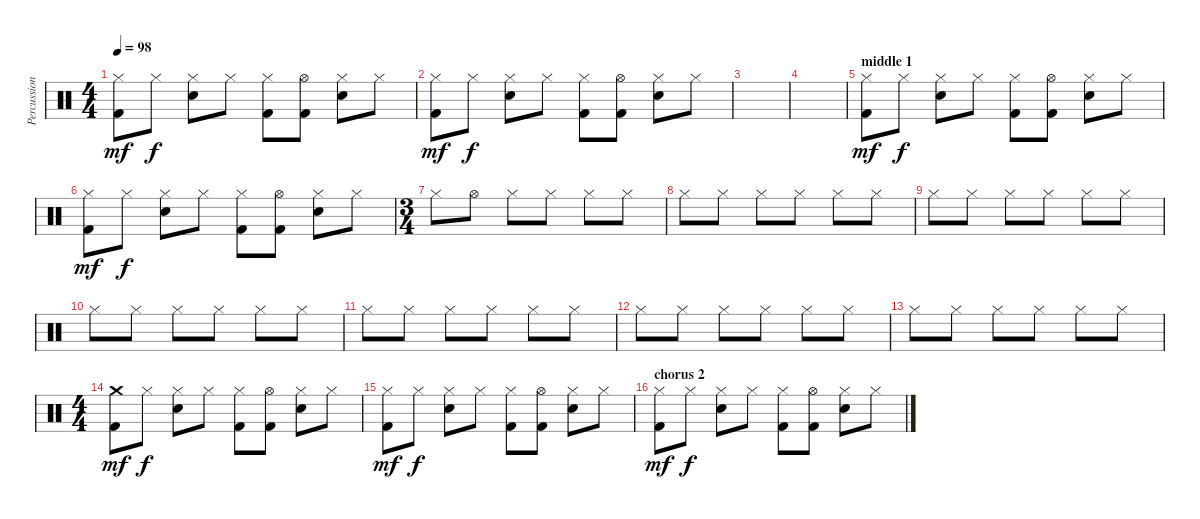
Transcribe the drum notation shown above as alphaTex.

\track ("Percussion" "Percussion") {instrument percussion}
\staff {score}
\articulation defaults
\ts (4 4)
\tempo 98
\clef neutral
\ks c
("Hi-Hat (closed)" "Kick (hit) 2").8{dy mf} "Hi-Hat (closed)".8{dy f} ("Hi-Hat (closed)" "Snare (hit) 2").8 "Hi-Hat (closed)".8 ("Hi-Hat (closed)" "Kick (hit) 2").8 ("Hi-Hat (open)" "Kick (hit) 2").8 ("Hi-Hat (closed)" "Snare (hit) 2").8 "Hi-Hat (closed)".8 |
("Hi-Hat (closed)" "Kick (hit) 2").8{dy mf} "Hi-Hat (closed)".8{dy f} ("Hi-Hat (closed)" "Snare (hit) 2").8 "Hi-Hat (closed)".8 ("Hi-Hat (closed)" "Kick (hit) 2").8 ("Hi-Hat (open)" "Kick (hit) 2").8 ("Hi-Hat (closed)" "Snare (hit) 2").8 "Hi-Hat (closed)".8 |
|
|
\section ("" "middle 1")
("Hi-Hat (closed)" "Kick (hit) 2").8{dy mf} "Hi-Hat (closed)".8{dy f} ("Hi-Hat (closed)" "Snare (hit) 2").8 "Hi-Hat (closed)".8 ("Hi-Hat (closed)" "Kick (hit) 2").8 ("Hi-Hat (open)" "Kick (hit) 2").8 ("Hi-Hat (closed)" "Snare (hit) 2").8 "Hi-Hat (closed)".8 |
("Hi-Hat (closed)" "Kick (hit) 2").8{dy mf} "Hi-Hat (closed)".8{dy f} ("Hi-Hat (closed)" "Snare (hit) 2").8 "Hi-Hat (closed)".8 ("Hi-Hat (closed)" "Kick (hit) 2").8 ("Hi-Hat (open)" "Kick (hit) 2").8 ("Hi-Hat (closed)" "Snare (hit) 2").8 "Hi-Hat (closed)".8 |
\ts (3 4)
"Hi-Hat (closed)".8 "Hi-Hat (open)".8 "Hi-Hat (closed)".8 "Hi-Hat (closed)".8 "Hi-Hat (closed)".8 "Hi-Hat (closed)".8 |
"Hi-Hat (closed)".8 "Hi-Hat (closed)".8 "Hi-Hat (closed)".8 "Hi-Hat (closed)".8 "Hi-Hat (closed)".8 "Hi-Hat (closed)".8 |
"Hi-Hat (closed)".8 "Hi-Hat (closed)".8 "Hi-Hat (closed)".8 "Hi-Hat (closed)".8 "Hi-Hat (closed)".8 "Hi-Hat (closed)".8 |
"Hi-Hat (closed)".8 "Hi-Hat (closed)".8 "Hi-Hat (closed)".8 "Hi-Hat (closed)".8 "Hi-Hat (closed)".8 "Hi-Hat (closed)".8 |
"Hi-Hat (closed)".8 "Hi-Hat (closed)".8 "Hi-Hat (closed)".8 "Hi-Hat (closed)".8 "Hi-Hat (closed)".8 "Hi-Hat (closed)".8 |
"Hi-Hat (closed)".8 "Hi-Hat (closed)".8 "Hi-Hat (closed)".8 "Hi-Hat (closed)".8 "Hi-Hat (closed)".8 "Hi-Hat (closed)".8 |
"Hi-Hat (closed)".8 "Hi-Hat (closed)".8 "Hi-Hat (closed)".8 "Hi-Hat (closed)".8 "Hi-Hat (closed)".8 "Hi-Hat (closed)".8 |
\ts (4 4)
("Crash medium (hit)" "Kick (hit) 2").8{dy mf} "Hi-Hat (closed)".8{dy f} ("Hi-Hat (closed)" "Snare (hit) 2").8 "Hi-Hat (closed)".8 ("Hi-Hat (closed)" "Kick (hit) 2").8 ("Hi-Hat (open)" "Kick (hit) 2").8 ("Hi-Hat (closed)" "Snare (hit) 2").8 "Hi-Hat (closed)".8 |
("Hi-Hat (closed)" "Kick (hit) 2").8{dy mf} "Hi-Hat (closed)".8{dy f} ("Hi-Hat (closed)" "Snare (hit) 2").8 "Hi-Hat (closed)".8 ("Hi-Hat (closed)" "Kick (hit) 2").8 ("Hi-Hat (open)" "Kick (hit) 2").8 ("Hi-Hat (closed)" "Snare (hit) 2").8 "Hi-Hat (closed)".8 |
\section ("" "chorus 2")
("Hi-Hat (closed)" "Kick (hit) 2").8{dy mf} "Hi-Hat (closed)".8{dy f} ("Hi-Hat (closed)" "Snare (hit) 2").8 "Hi-Hat (closed)".8 ("Hi-Hat (closed)" "Kick (hit) 2").8 ("Hi-Hat (open)" "Kick (hit) 2").8 ("Hi-Hat (closed)" "Snare (hit) 2").8 "Hi-Hat (closed)".8
